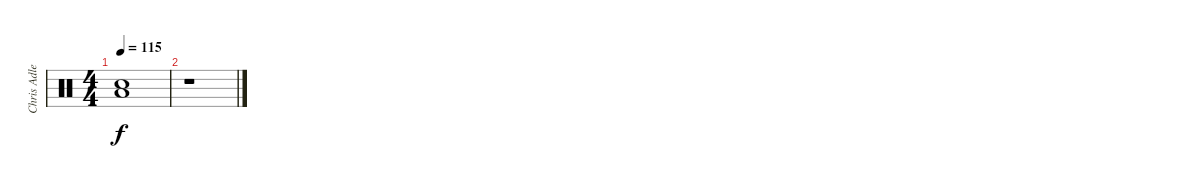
\track ("Chris Adler" "Chris Adle") {instrument percussion}
\staff {score}
\articulation defaults
\ts (4 4)
\tempo 115
\clef neutral
\ks c
("Electric Snare (hit)" "Low Floor Tom (hit)").1{dy f} |
r.1
